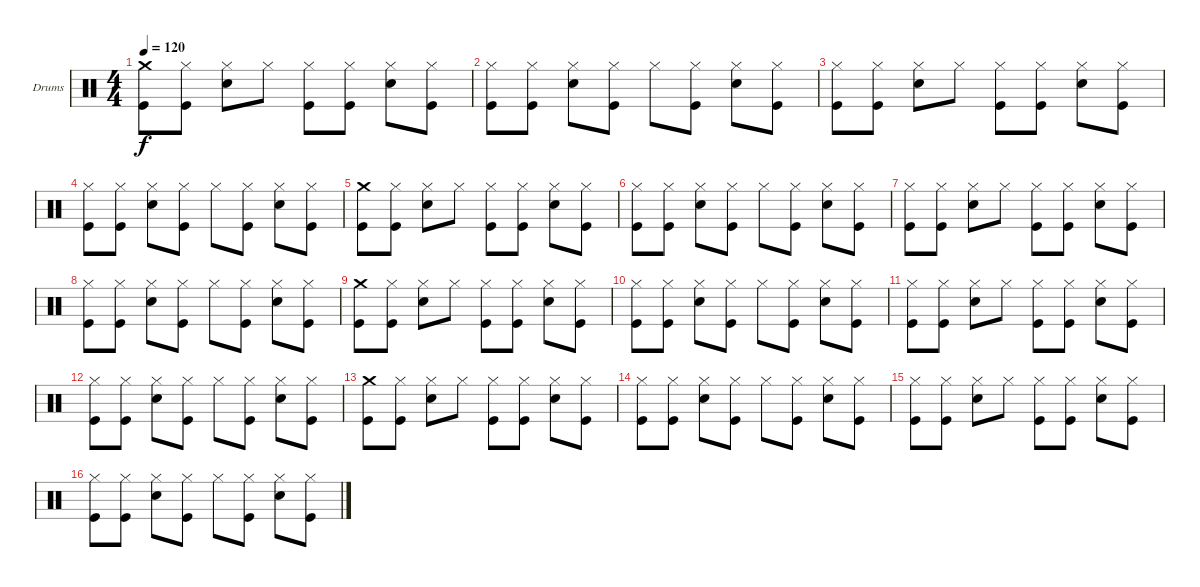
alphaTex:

\defaultSystemsLayout 4
\bracketExtendMode groupsimilarinstruments
\firstSystemTrackNameOrientation horizontal
\otherSystemsTrackNameOrientation horizontal
\track ("Drumkit" "Drums") {instrument percussion}
\staff {score}
\articulation defaults
\ts (4 4)
\tempo 120
\clef neutral
\ks c
("Crash medium (hit)" "Kick (hit)").8{dy f} ("Hi-Hat (closed)" "Kick (hit)").8 ("Hi-Hat (closed)" "Snare (hit) 2").8 "Hi-Hat (closed)".8 ("Hi-Hat (closed)" "Kick (hit)").8 ("Hi-Hat (closed)" "Kick (hit)").8 ("Hi-Hat (closed)" "Snare (hit) 2").8 ("Hi-Hat (closed)" "Kick (hit)").8 |
("Hi-Hat (closed)" "Kick (hit)").8 ("Hi-Hat (closed)" "Kick (hit)").8 ("Hi-Hat (closed)" "Snare (hit) 2").8 ("Hi-Hat (closed)" "Kick (hit)").8 "Hi-Hat (closed)".8 ("Hi-Hat (closed)" "Kick (hit)").8 ("Hi-Hat (closed)" "Snare (hit) 2").8 ("Hi-Hat (closed)" "Kick (hit)").8 |
("Hi-Hat (closed)" "Kick (hit)").8 ("Hi-Hat (closed)" "Kick (hit)").8 ("Hi-Hat (closed)" "Snare (hit) 2").8 "Hi-Hat (closed)".8 ("Hi-Hat (closed)" "Kick (hit)").8 ("Hi-Hat (closed)" "Kick (hit)").8 ("Hi-Hat (closed)" "Snare (hit) 2").8 ("Hi-Hat (closed)" "Kick (hit)").8 |
("Hi-Hat (closed)" "Kick (hit)").8 ("Hi-Hat (closed)" "Kick (hit)").8 ("Hi-Hat (closed)" "Snare (hit) 2").8 ("Hi-Hat (closed)" "Kick (hit)").8 "Hi-Hat (closed)".8 ("Hi-Hat (closed)" "Kick (hit)").8 ("Hi-Hat (closed)" "Snare (hit) 2").8 ("Hi-Hat (closed)" "Kick (hit)").8 |
("Crash medium (hit)" "Kick (hit)").8 ("Hi-Hat (closed)" "Kick (hit)").8 ("Hi-Hat (closed)" "Snare (hit) 2").8 "Hi-Hat (closed)".8 ("Hi-Hat (closed)" "Kick (hit)").8 ("Hi-Hat (closed)" "Kick (hit)").8 ("Hi-Hat (closed)" "Snare (hit) 2").8 ("Hi-Hat (closed)" "Kick (hit)").8 |
("Hi-Hat (closed)" "Kick (hit)").8 ("Hi-Hat (closed)" "Kick (hit)").8 ("Hi-Hat (closed)" "Snare (hit) 2").8 ("Hi-Hat (closed)" "Kick (hit)").8 "Hi-Hat (closed)".8 ("Hi-Hat (closed)" "Kick (hit)").8 ("Hi-Hat (closed)" "Snare (hit) 2").8 ("Hi-Hat (closed)" "Kick (hit)").8 |
("Hi-Hat (closed)" "Kick (hit)").8 ("Hi-Hat (closed)" "Kick (hit)").8 ("Hi-Hat (closed)" "Snare (hit) 2").8 "Hi-Hat (closed)".8 ("Hi-Hat (closed)" "Kick (hit)").8 ("Hi-Hat (closed)" "Kick (hit)").8 ("Hi-Hat (closed)" "Snare (hit) 2").8 ("Hi-Hat (closed)" "Kick (hit)").8 |
("Hi-Hat (closed)" "Kick (hit)").8 ("Hi-Hat (closed)" "Kick (hit)").8 ("Hi-Hat (closed)" "Snare (hit) 2").8 ("Hi-Hat (closed)" "Kick (hit)").8 "Hi-Hat (closed)".8 ("Hi-Hat (closed)" "Kick (hit)").8 ("Hi-Hat (closed)" "Snare (hit) 2").8 ("Hi-Hat (closed)" "Kick (hit)").8 |
("Crash medium (hit)" "Kick (hit)").8 ("Hi-Hat (closed)" "Kick (hit)").8 ("Hi-Hat (closed)" "Snare (hit) 2").8 "Hi-Hat (closed)".8 ("Hi-Hat (closed)" "Kick (hit)").8 ("Hi-Hat (closed)" "Kick (hit)").8 ("Hi-Hat (closed)" "Snare (hit) 2").8 ("Hi-Hat (closed)" "Kick (hit)").8 |
("Hi-Hat (closed)" "Kick (hit)").8 ("Hi-Hat (closed)" "Kick (hit)").8 ("Hi-Hat (closed)" "Snare (hit) 2").8 ("Hi-Hat (closed)" "Kick (hit)").8 "Hi-Hat (closed)".8 ("Hi-Hat (closed)" "Kick (hit)").8 ("Hi-Hat (closed)" "Snare (hit) 2").8 ("Hi-Hat (closed)" "Kick (hit)").8 |
("Hi-Hat (closed)" "Kick (hit)").8 ("Hi-Hat (closed)" "Kick (hit)").8 ("Hi-Hat (closed)" "Snare (hit) 2").8 "Hi-Hat (closed)".8 ("Hi-Hat (closed)" "Kick (hit)").8 ("Hi-Hat (closed)" "Kick (hit)").8 ("Hi-Hat (closed)" "Snare (hit) 2").8 ("Hi-Hat (closed)" "Kick (hit)").8 |
("Hi-Hat (closed)" "Kick (hit)").8 ("Hi-Hat (closed)" "Kick (hit)").8 ("Hi-Hat (closed)" "Snare (hit) 2").8 ("Hi-Hat (closed)" "Kick (hit)").8 "Hi-Hat (closed)".8 ("Hi-Hat (closed)" "Kick (hit)").8 ("Hi-Hat (closed)" "Snare (hit) 2").8 ("Hi-Hat (closed)" "Kick (hit)").8 |
("Crash medium (hit)" "Kick (hit)").8 ("Hi-Hat (closed)" "Kick (hit)").8 ("Hi-Hat (closed)" "Snare (hit) 2").8 "Hi-Hat (closed)".8 ("Hi-Hat (closed)" "Kick (hit)").8 ("Hi-Hat (closed)" "Kick (hit)").8 ("Hi-Hat (closed)" "Snare (hit) 2").8 ("Hi-Hat (closed)" "Kick (hit)").8 |
("Hi-Hat (closed)" "Kick (hit)").8 ("Hi-Hat (closed)" "Kick (hit)").8 ("Hi-Hat (closed)" "Snare (hit) 2").8 ("Hi-Hat (closed)" "Kick (hit)").8 "Hi-Hat (closed)".8 ("Hi-Hat (closed)" "Kick (hit)").8 ("Hi-Hat (closed)" "Snare (hit) 2").8 ("Hi-Hat (closed)" "Kick (hit)").8 |
("Hi-Hat (closed)" "Kick (hit)").8 ("Hi-Hat (closed)" "Kick (hit)").8 ("Hi-Hat (closed)" "Snare (hit) 2").8 "Hi-Hat (closed)".8 ("Hi-Hat (closed)" "Kick (hit)").8 ("Hi-Hat (closed)" "Kick (hit)").8 ("Hi-Hat (closed)" "Snare (hit) 2").8 ("Hi-Hat (closed)" "Kick (hit)").8 |
("Hi-Hat (closed)" "Kick (hit)").8 ("Hi-Hat (closed)" "Kick (hit)").8 ("Hi-Hat (closed)" "Snare (hit) 2").8 ("Hi-Hat (closed)" "Kick (hit)").8 "Hi-Hat (closed)".8 ("Hi-Hat (closed)" "Kick (hit)").8 ("Hi-Hat (closed)" "Snare (hit) 2").8 ("Hi-Hat (closed)" "Kick (hit)").8
